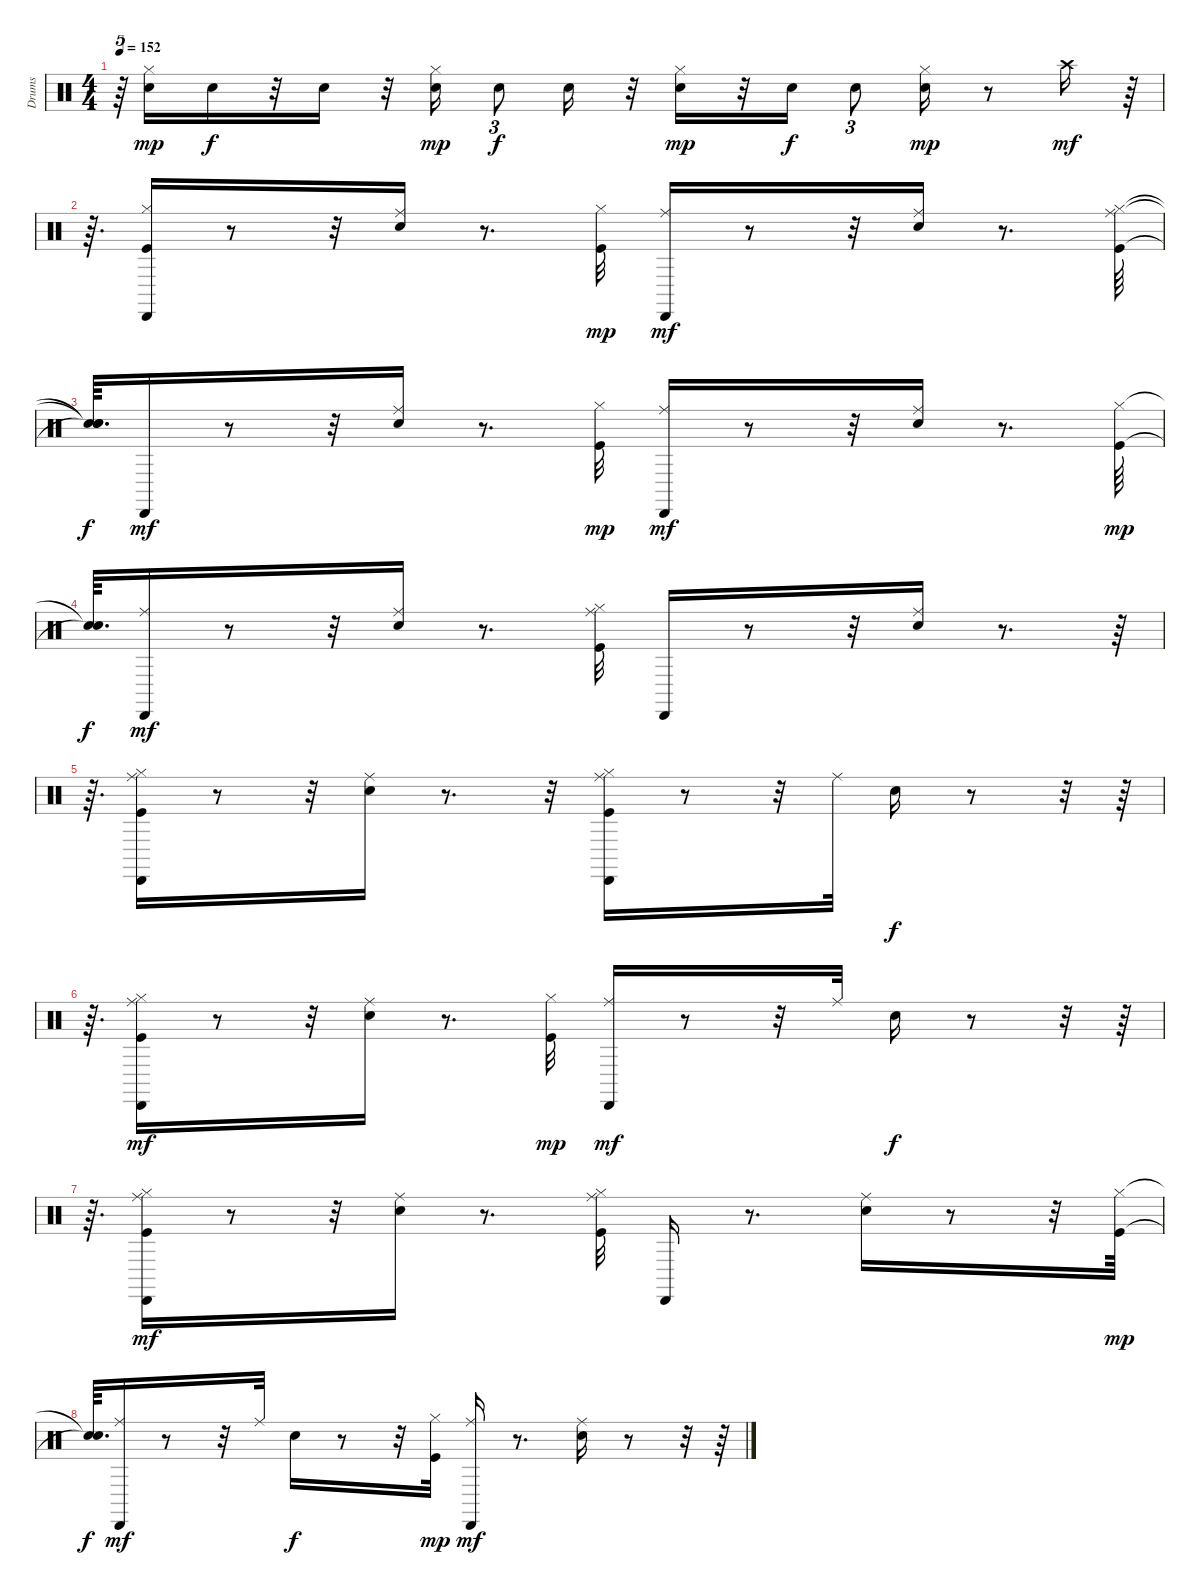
\track ("Drums" "Drums") {instrument percussion}
\staff {score}
\articulation defaults
\ts (4 4)
\tempo 152
\clef neutral
\ks c
r.64{tu (5 4) dy mp} ("Hi-Hat (closed)" "Snare (hit) 2").16 "Snare (hit) 2".16{dy f} r.32 "Snare (hit) 2".16 r.32 ("Snare (hit) 2" "Hi-Hat (closed)").16{dy mp} "Snare (hit) 2".8{tu (3 2) dy f} "Snare (hit) 2".16 r.32 ("Hi-Hat (closed)" "Snare (hit) 2").16{dy mp} r.32 "Snare (hit) 2".16{dy f} "Snare (hit) 2".8{tu (3 2)} ("Snare (hit) 2" "Hi-Hat (closed)").16{dy mp} r.8 "Crash high (hit)".16{dy mf} r.64 |
r.64{d} ("Kick (hit)" "Hi-Hat (closed)" "Cabasa (hit)").16 r.8 r.32 ("Snare (hit) 2" "Ride (middle)").16 r.8{d} ("Kick (hit)" "Hi-Hat (closed)").32{dy mp} ("Ride (middle)" "Cabasa (hit)").16{dy mf} r.8 r.32 ("Ride (middle)" "Snare (hit) 2").16 r.8{d} ("Kick (hit)" "Hi-Hat (closed)" "Ride (middle)").64 |
("Snare (hit)"{t} "Snare (hit)"{t} "Snare (hit)"{t}).64{d dy f} "Cabasa (hit)".16{dy mf} r.8 r.32 ("Ride (middle)" "Snare (hit) 2").16 r.8{d} ("Kick (hit)" "Hi-Hat (closed)").32{dy mp} ("Ride (middle)" "Cabasa (hit)").16{dy mf} r.8 r.32 ("Ride (middle)" "Snare (hit) 2").16 r.8{d} ("Kick (hit)" "Hi-Hat (closed)").64{dy mp} |
("Snare (hit)"{t} "Snare (hit)"{t}).64{d dy f} ("Ride (middle)" "Cabasa (hit)").16{dy mf} r.8 r.32 ("Snare (hit) 2" "Ride (middle)").16 r.8{d} ("Kick (hit)" "Hi-Hat (closed)" "Ride (middle)").32 "Cabasa (hit)".16 r.8 r.32 ("Snare (hit) 2" "Ride (middle)").16 r.8{d} r.64 |
r.64{d} ("Kick (hit)" "Hi-Hat (closed)" "Ride (middle)" "Cabasa (hit)").16 r.8 r.32 ("Ride (middle)" "Snare (hit) 2").16 r.8{d} r.32 ("Kick (hit)" "Hi-Hat (closed)" "Ride (middle)" "Cabasa (hit)").16 r.8 r.32 "Ride (middle)".32 "Snare (hit) 2".16{dy f} r.8 r.32 r.64 |
r.64{d} ("Kick (hit)" "Hi-Hat (closed)" "Ride (middle)" "Cabasa (hit)").16{dy mf} r.8 r.32 ("Snare (hit) 2" "Ride (middle)").16 r.8{d} ("Kick (hit)" "Hi-Hat (closed)").32{dy mp} ("Ride (middle)" "Cabasa (hit)").16{dy mf} r.8 r.32 "Ride (middle)".32 "Snare (hit) 2".16{dy f} r.8 r.32 r.64 |
r.64{d} ("Kick (hit)" "Hi-Hat (closed)" "Ride (middle)" "Cabasa (hit)").16{dy mf} r.8 r.32 ("Snare (hit) 2" "Ride (middle)").16 r.8{d} ("Kick (hit)" "Hi-Hat (closed)" "Ride (middle)").32 "Cabasa (hit)".16 r.8{d} ("Snare (hit) 2" "Ride (middle)").16 r.8 r.32 ("Kick (hit)" "Hi-Hat (closed)").64{dy mp} |
("Snare (hit)"{t} "Snare (hit)"{t}).64{d dy f} ("Ride (middle)" "Cabasa (hit)").16{dy mf} r.8 r.32 "Ride (middle)".32 "Snare (hit) 2".16{dy f} r.8 r.32 ("Kick (hit)" "Hi-Hat (closed)").32{dy mp} ("Ride (middle)" "Cabasa (hit)").16{dy mf} r.8{d} ("Snare (hit) 2" "Ride (middle)").16 r.8 r.32 r.64
